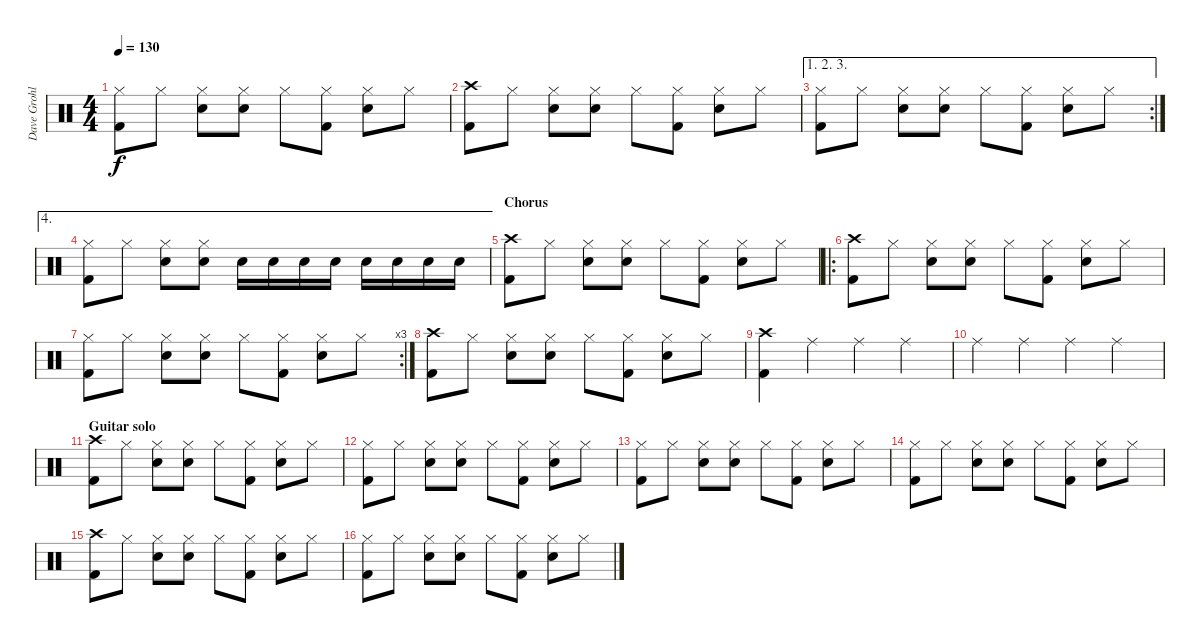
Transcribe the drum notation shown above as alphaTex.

\track ("Dave Grohl" "Dave Grohl") {instrument percussion}
\staff {score}
\articulation defaults
\ts (4 4)
\tempo 130
\clef neutral
\ks c
("Hi-Hat (closed)" "Kick (hit) 2").8{dy f} "Hi-Hat (closed)".8 ("Hi-Hat (closed)" "Electric Snare (hit)").8 ("Hi-Hat (closed)" "Electric Snare (hit)").8 "Hi-Hat (closed)".8 ("Hi-Hat (closed)" "Kick (hit) 2").8 ("Hi-Hat (closed)" "Electric Snare (hit)").8 "Hi-Hat (closed)".8 |
("Crash high (hit)" "Kick (hit) 2").8 "Hi-Hat (closed)".8 ("Hi-Hat (closed)" "Electric Snare (hit)").8 ("Hi-Hat (closed)" "Electric Snare (hit)").8 "Hi-Hat (closed)".8 ("Hi-Hat (closed)" "Kick (hit) 2").8 ("Hi-Hat (closed)" "Electric Snare (hit)").8 "Hi-Hat (closed)".8 |
\ae (1 2 3)
\rc 2
("Hi-Hat (closed)" "Kick (hit) 2").8 "Hi-Hat (closed)".8 ("Hi-Hat (closed)" "Electric Snare (hit)").8 ("Hi-Hat (closed)" "Electric Snare (hit)").8 "Hi-Hat (closed)".8 ("Hi-Hat (closed)" "Kick (hit) 2").8 ("Hi-Hat (closed)" "Electric Snare (hit)").8 "Hi-Hat (closed)".8 |
\ae 4
("Hi-Hat (closed)" "Kick (hit) 2").8 "Hi-Hat (closed)".8 ("Hi-Hat (closed)" "Electric Snare (hit)").8 ("Hi-Hat (closed)" "Electric Snare (hit)").8 "Electric Snare (hit)".16 "Electric Snare (hit)".16 "Electric Snare (hit)".16 "Electric Snare (hit)".16 "Electric Snare (hit)".16 "Electric Snare (hit)".16 "Electric Snare (hit)".16 "Electric Snare (hit)".16 |
\section ("" "Chorus")
("Crash high (hit)" "Kick (hit) 2").8 "Hi-Hat (closed)".8 ("Hi-Hat (closed)" "Electric Snare (hit)").8 ("Hi-Hat (closed)" "Electric Snare (hit)").8 "Hi-Hat (closed)".8 ("Hi-Hat (closed)" "Kick (hit) 2").8 ("Hi-Hat (closed)" "Electric Snare (hit)").8 "Hi-Hat (closed)".8 |
\ro
("Crash high (hit)" "Kick (hit) 2").8 "Hi-Hat (closed)".8 ("Hi-Hat (closed)" "Electric Snare (hit)").8 ("Hi-Hat (closed)" "Electric Snare (hit)").8 "Hi-Hat (closed)".8 ("Hi-Hat (closed)" "Kick (hit) 2").8 ("Hi-Hat (closed)" "Electric Snare (hit)").8 "Hi-Hat (closed)".8 |
\rc 3
("Hi-Hat (closed)" "Kick (hit) 2").8 "Hi-Hat (closed)".8 ("Hi-Hat (closed)" "Electric Snare (hit)").8 ("Hi-Hat (closed)" "Electric Snare (hit)").8 "Hi-Hat (closed)".8 ("Hi-Hat (closed)" "Kick (hit) 2").8 ("Hi-Hat (closed)" "Electric Snare (hit)").8 "Hi-Hat (closed)".8 |
("Crash high (hit)" "Kick (hit) 2").8 "Hi-Hat (closed)".8 ("Hi-Hat (closed)" "Electric Snare (hit)").8 ("Hi-Hat (closed)" "Electric Snare (hit)").8 "Hi-Hat (closed)".8 ("Hi-Hat (closed)" "Kick (hit) 2").8 ("Hi-Hat (closed)" "Electric Snare (hit)").8 "Hi-Hat (closed)".8 |
("Crash high (hit)" "Kick (hit) 2").4 "Ride (middle)".4 "Ride (middle)".4 "Ride (middle)".4 |
"Ride (middle)".4 "Ride (middle)".4 "Ride (middle)".4 "Ride (middle)".4 |
\section ("" "Guitar solo")
("Crash high (hit)" "Kick (hit) 2").8 "Hi-Hat (closed)".8 ("Hi-Hat (closed)" "Electric Snare (hit)").8 ("Hi-Hat (closed)" "Electric Snare (hit)").8 "Hi-Hat (closed)".8 ("Hi-Hat (closed)" "Kick (hit) 2").8 ("Hi-Hat (closed)" "Electric Snare (hit)").8 "Hi-Hat (closed)".8 |
("Hi-Hat (closed)" "Kick (hit) 2").8 "Hi-Hat (closed)".8 ("Hi-Hat (closed)" "Electric Snare (hit)").8 ("Hi-Hat (closed)" "Electric Snare (hit)").8 "Hi-Hat (closed)".8 ("Hi-Hat (closed)" "Kick (hit) 2").8 ("Hi-Hat (closed)" "Electric Snare (hit)").8 "Hi-Hat (closed)".8 |
("Hi-Hat (closed)" "Kick (hit) 2").8 "Hi-Hat (closed)".8 ("Hi-Hat (closed)" "Electric Snare (hit)").8 ("Hi-Hat (closed)" "Electric Snare (hit)").8 "Hi-Hat (closed)".8 ("Hi-Hat (closed)" "Kick (hit) 2").8 ("Hi-Hat (closed)" "Electric Snare (hit)").8 "Hi-Hat (closed)".8 |
("Hi-Hat (closed)" "Kick (hit) 2").8 "Hi-Hat (closed)".8 ("Hi-Hat (closed)" "Electric Snare (hit)").8 ("Hi-Hat (closed)" "Electric Snare (hit)").8 "Hi-Hat (closed)".8 ("Hi-Hat (closed)" "Kick (hit) 2").8 ("Hi-Hat (closed)" "Electric Snare (hit)").8 "Hi-Hat (closed)".8 |
("Crash high (hit)" "Kick (hit) 2").8 "Hi-Hat (closed)".8 ("Hi-Hat (closed)" "Electric Snare (hit)").8 ("Hi-Hat (closed)" "Electric Snare (hit)").8 "Hi-Hat (closed)".8 ("Hi-Hat (closed)" "Kick (hit) 2").8 ("Hi-Hat (closed)" "Electric Snare (hit)").8 "Hi-Hat (closed)".8 |
("Hi-Hat (closed)" "Kick (hit) 2").8 "Hi-Hat (closed)".8 ("Hi-Hat (closed)" "Electric Snare (hit)").8 ("Hi-Hat (closed)" "Electric Snare (hit)").8 "Hi-Hat (closed)".8 ("Hi-Hat (closed)" "Kick (hit) 2").8 ("Hi-Hat (closed)" "Electric Snare (hit)").8 "Hi-Hat (closed)".8
